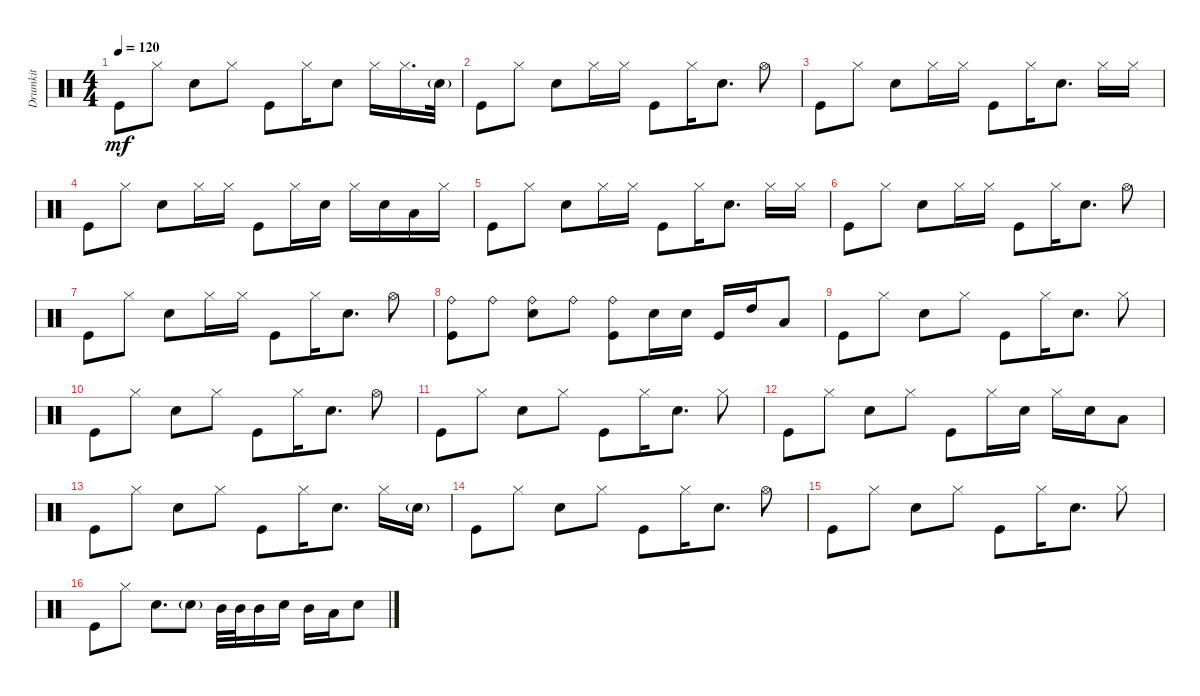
\track ("Drumkit" "Drumkit") {instrument percussion}
\staff {score}
\articulation defaults
\ts (4 4)
\tempo 120
\clef neutral
\ks c "Kick (hit)".8{dy mf} "Hi-Hat (closed)".8 "Snare (hit) 2".8 "Hi-Hat (closed)".8 "Kick (hit)".8 "Hi-Hat (closed)".16 "Snare (hit) 2".8 "Hi-Hat (closed)".16 "Hi-Hat (closed)".16{d} "Snare (hit) 2"{g}.32
|
"Kick (hit)".8 "Hi-Hat (closed)".8 "Snare (hit) 2".8 "Hi-Hat (closed)".16 "Hi-Hat (closed)".16 "Kick (hit)".8 "Hi-Hat (closed)".16 "Snare (hit) 2".8{d} "Hi-Hat (open)".8 |
"Kick (hit)".8 "Hi-Hat (closed)".8 "Snare (hit) 2".8 "Hi-Hat (closed)".16 "Hi-Hat (closed)".16 "Kick (hit)".8 "Hi-Hat (closed)".16 "Snare (hit) 2".8{d} "Hi-Hat (closed)".16 "Hi-Hat (closed)".16 |
"Kick (hit)".8 "Hi-Hat (closed)".8 "Snare (hit) 2".8 "Hi-Hat (closed)".16 "Hi-Hat (closed)".16 "Kick (hit)".8 "Hi-Hat (closed)".16 "Snare (hit) 2".16 "Hi-Hat (closed)".16 "Snare (hit) 2".16 "Low Tom (hit)".16 "Hi-Hat (closed)".16 |
"Kick (hit)".8 "Hi-Hat (closed)".8 "Snare (hit) 2".8 "Hi-Hat (closed)".16 "Hi-Hat (closed)".16 "Kick (hit)".8 "Hi-Hat (closed)".16 "Snare (hit) 2".8{d} "Hi-Hat (closed)".16 "Hi-Hat (closed)".16 |
"Kick (hit)".8 "Hi-Hat (closed)".8 "Snare (hit) 2".8 "Hi-Hat (closed)".16 "Hi-Hat (closed)".16 "Kick (hit)".8 "Hi-Hat (closed)".16 "Snare (hit) 2".8{d} "Hi-Hat (open)".8 |
"Kick (hit)".8 "Hi-Hat (closed)".8 "Snare (hit) 2".8 "Hi-Hat (closed)".16 "Hi-Hat (closed)".16 "Kick (hit)".8 "Hi-Hat (closed)".16 "Snare (hit) 2".8{d} "Hi-Hat (open)".8 |
("Ride (bell)" "Kick (hit)").8 "Ride (bell)".8 ("Ride (bell)" "Snare (hit) 2").8 "Ride (bell)".8 ("Ride (bell)" "Kick (hit)").8 "Snare (hit) 2".16 "Snare (hit) 2".16 "Kick (hit)".16 "High Tom (hit)".16 "Low Tom (hit)".8 |
"Kick (hit)".8 "Hi-Hat (closed)".8 "Snare (hit) 2".8 "Hi-Hat (closed)".8 "Kick (hit)".8 "Hi-Hat (closed)".16 "Snare (hit) 2".8{d} "Hi-Hat (closed)".8 |
"Kick (hit)".8 "Hi-Hat (closed)".8 "Snare (hit) 2".8 "Hi-Hat (closed)".8 "Kick (hit)".8 "Hi-Hat (closed)".16 "Snare (hit) 2".8{d} "Hi-Hat (open)".8 |
"Kick (hit)".8 "Hi-Hat (closed)".8 "Snare (hit) 2".8 "Hi-Hat (closed)".8 "Kick (hit)".8 "Hi-Hat (closed)".16 "Snare (hit) 2".8{d} "Hi-Hat (closed)".8 |
"Kick (hit)".8 "Hi-Hat (closed)".8 "Snare (hit) 2".8 "Hi-Hat (closed)".8 "Kick (hit)".8 "Hi-Hat (closed)".16 "Snare (hit) 2".16 "Hi-Hat (closed)".16 "Snare (hit) 2".16 "Low Tom (hit)".8 |
"Kick (hit)".8 "Hi-Hat (closed)".8 "Snare (hit) 2".8 "Hi-Hat (closed)".8 "Kick (hit)".8 "Hi-Hat (closed)".16 "Snare (hit) 2".8{d} "Hi-Hat (closed)".16 "Snare (hit) 2"{g}.16 |
"Kick (hit)".8 "Hi-Hat (closed)".8 "Snare (hit) 2".8 "Hi-Hat (closed)".8 "Kick (hit)".8 "Hi-Hat (closed)".16 "Snare (hit) 2".8{d} "Hi-Hat (open)".8 |
"Kick (hit)".8 "Hi-Hat (closed)".8 "Snare (hit) 2".8 "Hi-Hat (closed)".8 "Kick (hit)".8 "Hi-Hat (closed)".16 "Snare (hit) 2".8{d} "Hi-Hat (closed)".8 |
"Kick (hit)".8 "Hi-Hat (closed)".8 "Snare (hit) 2".8{d} "Snare (hit) 2"{g}.8 "Mid Tom (hit)".32 "Mid Tom (hit)".32 "Mid Tom (hit)".16 "Snare (hit) 2".16 "Mid Tom (hit)".16 "Low Tom (hit)".16 "Snare (hit) 2".8
